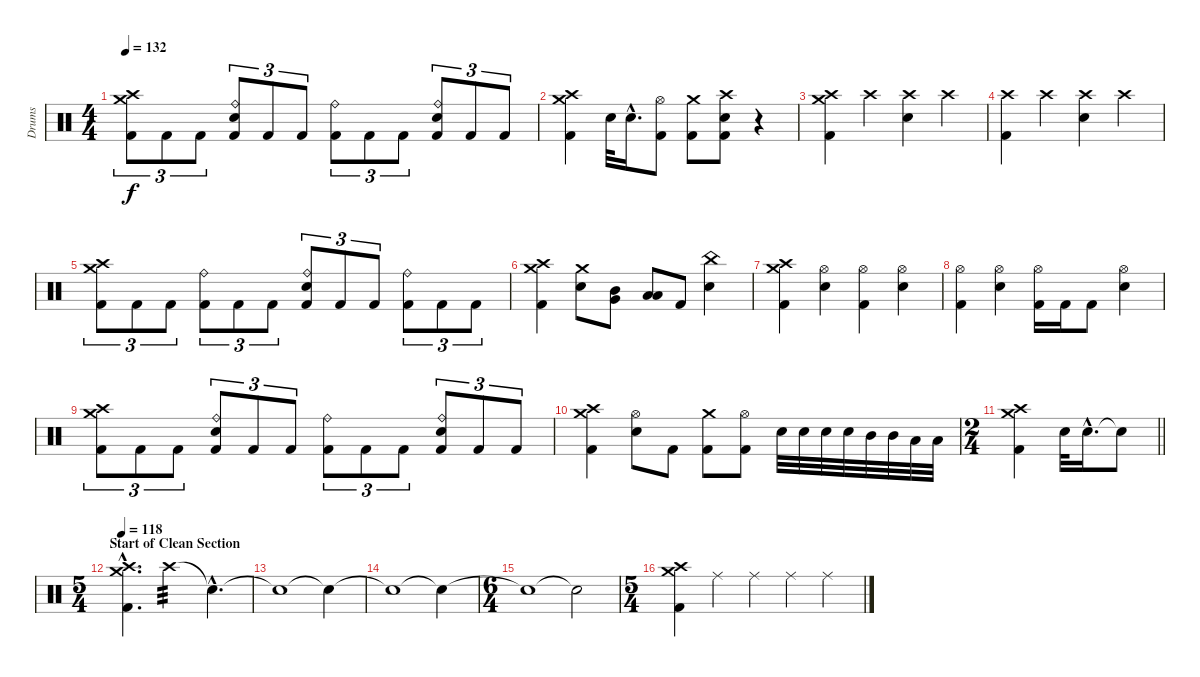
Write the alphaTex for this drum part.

\track ("Drums" "Drums") {instrument percussion}
\staff {score}
\articulation defaults
\ts (4 4)
\tempo 132
\clef neutral
\ks c
("Crash medium (hit)" "Crash high (hit)" "Kick (hit) 2").8{tu (3 2) dy f} "Kick (hit) 2".8{tu (3 2)} "Kick (hit) 2".8{tu (3 2)} ("Ride (bell)" "Electric Snare (hit)" "Kick (hit) 2").8{tu (3 2)} "Kick (hit) 2".8{tu (3 2)} "Kick (hit) 2".8{tu (3 2)} ("Ride (bell)" "Kick (hit) 2").8{tu (3 2)} "Kick (hit) 2".8{tu (3 2)} "Kick (hit) 2".8{tu (3 2)} ("Ride (bell)" "Electric Snare (hit)" "Kick (hit) 2").8{tu (3 2)} "Kick (hit) 2".8{tu (3 2)} "Kick (hit) 2".8{tu (3 2)} |
("Crash medium (hit)" "Crash high (hit)" "Kick (hit) 2").4 "Electric Snare (hit)".32 "Electric Snare (hit)"{hac}.16{d} ("Hi-Hat (open)" "Kick (hit) 2").8 ("Crash medium (hit)" "Kick (hit) 2").8 ("Crash high (hit)" "Electric Snare (hit)" "Kick (hit) 2").8 r.4{volume 0} |
("Crash medium (hit)" "Crash high (hit)" "Kick (hit) 2").4{volume 13} "Crash high (hit)".4 ("Crash high (hit)" "Electric Snare (hit)").4 "Crash high (hit)".4 |
("Crash high (hit)" "Kick (hit) 2").4 "Crash high (hit)".4 ("Crash high (hit)" "Electric Snare (hit)").4 "Crash high (hit)".4 |
("Crash medium (hit)" "Crash high (hit)" "Kick (hit) 2").8{tu (3 2)} "Kick (hit) 2".8{tu (3 2)} "Kick (hit) 2".8{tu (3 2)} ("Ride (bell)" "Kick (hit) 2").8{tu (3 2)} "Kick (hit) 2".8{tu (3 2)} "Kick (hit) 2".8{tu (3 2)} ("Ride (bell)" "Electric Snare (hit)" "Kick (hit) 2").8{tu (3 2)} "Kick (hit) 2".8{tu (3 2)} "Kick (hit) 2".8{tu (3 2)} ("Ride (bell)" "Kick (hit) 2").8{tu (3 2)} "Kick (hit) 2".8{tu (3 2)} "Kick (hit) 2".8{tu (3 2)} |
("Crash medium (hit)" "Crash high (hit)" "Kick (hit) 2").4 ("Crash medium (hit)" "Electric Snare (hit)").8 ("Mid Tom (hit)" "Very Low Tom (hit)").8 ("Low Tom (hit)" "Low Floor Tom (hit)").8 "Kick (hit) 2".8 ("China (hit)" "Electric Snare (hit)").4 |
("Crash medium (hit)" "Crash high (hit)" "Kick (hit) 2").4 ("Hi-Hat (open)" "Electric Snare (hit)").4 ("Hi-Hat (open)" "Kick (hit) 2").4 ("Hi-Hat (open)" "Electric Snare (hit)").4 |
("Hi-Hat (open)" "Kick (hit) 2").4 ("Hi-Hat (open)" "Electric Snare (hit)").4 ("Hi-Hat (open)" "Kick (hit) 2").16 "Kick (hit) 2".16 "Kick (hit) 2".8 ("Hi-Hat (open)" "Electric Snare (hit)").4 |
("Crash medium (hit)" "Crash high (hit)" "Kick (hit) 2").8{tu (3 2)} "Kick (hit) 2".8{tu (3 2)} "Kick (hit) 2".8{tu (3 2)} ("Ride (bell)" "Electric Snare (hit)" "Kick (hit) 2").8{tu (3 2)} "Kick (hit) 2".8{tu (3 2)} "Kick (hit) 2".8{tu (3 2)} ("Ride (bell)" "Kick (hit) 2").8{tu (3 2)} "Kick (hit) 2".8{tu (3 2)} "Kick (hit) 2".8{tu (3 2)} ("Ride (bell)" "Electric Snare (hit)" "Kick (hit) 2").8{tu (3 2)} "Kick (hit) 2".8{tu (3 2)} "Kick (hit) 2".8{tu (3 2)} |
("Crash medium (hit)" "Crash high (hit)" "Kick (hit) 2").4 ("Hi-Hat (open)" "Electric Snare (hit)").8 "Kick (hit) 2".8 ("Crash medium (hit)" "Kick (hit) 2").8 ("Hi-Hat (open)" "Kick (hit) 2").8 "Electric Snare (hit)".32 "Electric Snare (hit)".32 "Electric Snare (hit)".32 "Electric Snare (hit)".32 "Mid Tom (hit)".32 "Mid Tom (hit)".32 "Low Tom (hit)".32 "Low Tom (hit)".32 |
\ts (2 4)
\barLineRight lightlight
("Crash medium (hit)" "Crash high (hit)" "Kick (hit) 2").4 "Electric Snare (hit)".32 "Electric Snare (hit)"{hac}.16{d} "Snare (hit)"{t}.8 |
\ts (5 4)
\section ("" "Start of Clean Section")
\tempo 118
("Crash medium (hit)"{hac} "Crash high (hit)"{hac} "Kick (hit) 2"{hac}).4{d} "Crash high (hit)".2{tp 3 volume 6} "Snare (hit)"{hac t}.4{d} |
"Snare (hit)"{t}.1{volume 7} "Snare (hit)"{t}.4 |
"Snare (hit)"{t}.1{volume 8} "Snare (hit)"{t}.4{volume 6} |
\ts (6 4)
"Snare (hit)"{t}.1{volume 7} "Snare (hit)"{t}.2{volume 9} |
\ts (5 4)
("Crash medium (hit)" "Crash high (hit)" "Kick (hit) 2").4{volume 13} "Ride (middle)".4 "Ride (middle)".4 "Ride (middle)".4 "Ride (middle)".4
